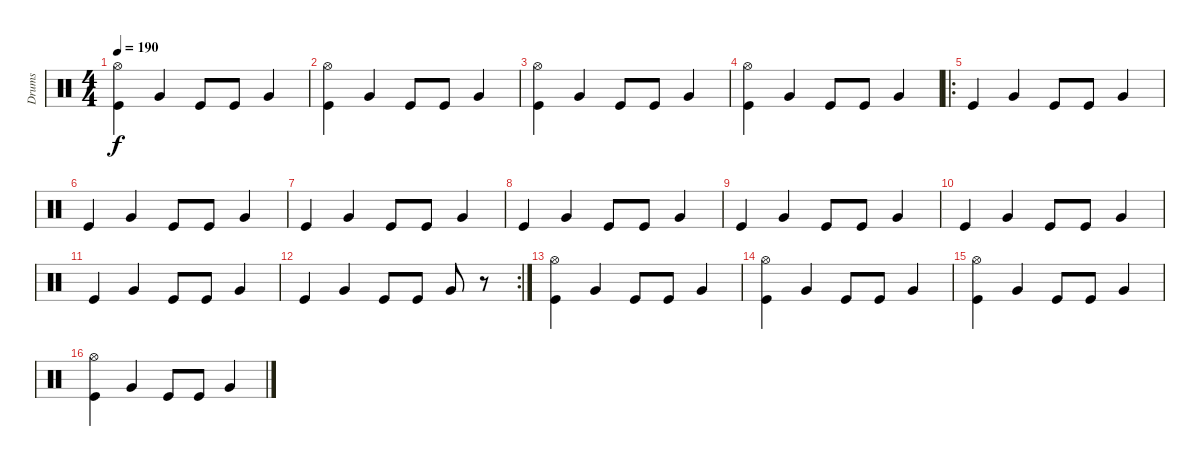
\track ("Drums" "Drums") {instrument percussion}
\staff {score}
\articulation defaults
\ts (4 4)
\tempo 190
\clef neutral
\ks c
("Hi-Hat (open)" "Kick (hit)").4{dy f} "Very Low Tom (hit)".4 "Kick (hit)".8 "Kick (hit)".8 "Very Low Tom (hit)".4 |
("Hi-Hat (open)" "Kick (hit)").4 "Very Low Tom (hit)".4 "Kick (hit)".8 "Kick (hit)".8 "Very Low Tom (hit)".4 |
("Hi-Hat (open)" "Kick (hit)").4 "Very Low Tom (hit)".4 "Kick (hit)".8 "Kick (hit)".8 "Very Low Tom (hit)".4 |
("Hi-Hat (open)" "Kick (hit)").4 "Very Low Tom (hit)".4 "Kick (hit)".8 "Kick (hit)".8 "Very Low Tom (hit)".4 |
\ro "Kick (hit)".4 "Very Low Tom (hit)".4 "Kick (hit)".8 "Kick (hit)".8 "Very Low Tom (hit)".4
|
"Kick (hit)".4 "Very Low Tom (hit)".4 "Kick (hit)".8 "Kick (hit)".8 "Very Low Tom (hit)".4 |
"Kick (hit)".4 "Very Low Tom (hit)".4 "Kick (hit)".8 "Kick (hit)".8 "Very Low Tom (hit)".4 |
"Kick (hit)".4 "Very Low Tom (hit)".4 "Kick (hit)".8 "Kick (hit)".8 "Very Low Tom (hit)".4 |
"Kick (hit)".4 "Very Low Tom (hit)".4 "Kick (hit)".8 "Kick (hit)".8 "Very Low Tom (hit)".4 |
"Kick (hit)".4 "Very Low Tom (hit)".4 "Kick (hit)".8 "Kick (hit)".8 "Very Low Tom (hit)".4 |
"Kick (hit)".4 "Very Low Tom (hit)".4 "Kick (hit)".8 "Kick (hit)".8 "Very Low Tom (hit)".4 |
\rc 2 "Kick (hit)".4 "Very Low Tom (hit)".4 "Kick (hit)".8 "Kick (hit)".8 "Very Low Tom (hit)".8
r.8 |
("Hi-Hat (open)" "Kick (hit)").4 "Very Low Tom (hit)".4 "Kick (hit)".8 "Kick (hit)".8 "Very Low Tom (hit)".4 |
("Hi-Hat (open)" "Kick (hit)").4 "Very Low Tom (hit)".4 "Kick (hit)".8 "Kick (hit)".8 "Very Low Tom (hit)".4 |
("Hi-Hat (open)" "Kick (hit)").4 "Very Low Tom (hit)".4 "Kick (hit)".8 "Kick (hit)".8 "Very Low Tom (hit)".4 |
("Hi-Hat (open)" "Kick (hit)").4 "Very Low Tom (hit)".4 "Kick (hit)".8 "Kick (hit)".8 "Very Low Tom (hit)".4
